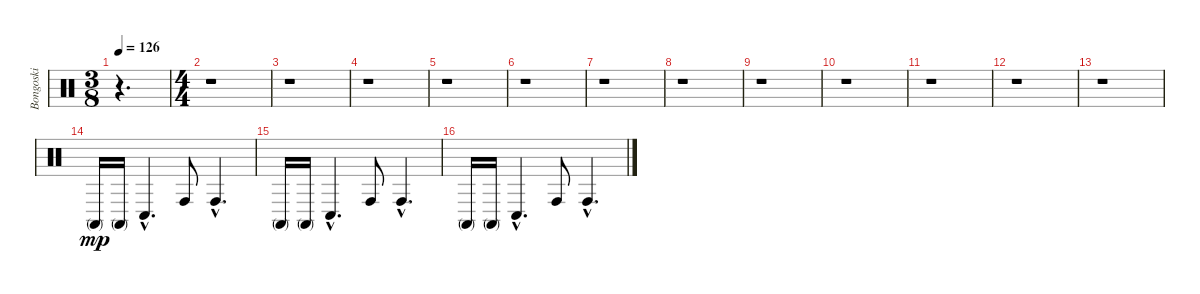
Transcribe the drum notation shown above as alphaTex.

\track ("Bongoski" "Bongoski") {instrument percussion}
\staff {score}
\articulation defaults
\ts (3 8)
\tempo 126
\clef neutral
\ks c
r.4{d dy mp} |
\ts (4 4)
r.1 |
r.1 |
r.1 |
r.1 |
r.1 |
r.1 |
r.1 |
r.1 |
r.1 |
r.1 |
r.1 |
r.1 |
"Conga high (mute)".16 "Conga high (mute)".16 "Conga low (hit)"{hac}.4{d} "Conga high (hit)".8 "Conga high (hit)"{hac}.4{d} |
"Conga high (mute)".16 "Conga high (mute)".16 "Conga low (hit)"{hac}.4{d} "Conga high (hit)".8 "Conga high (hit)"{hac}.4{d} |
"Conga high (mute)".16 "Conga high (mute)".16 "Conga low (hit)"{hac}.4{d} "Conga high (hit)".8 "Conga high (hit)"{hac}.4{d}
